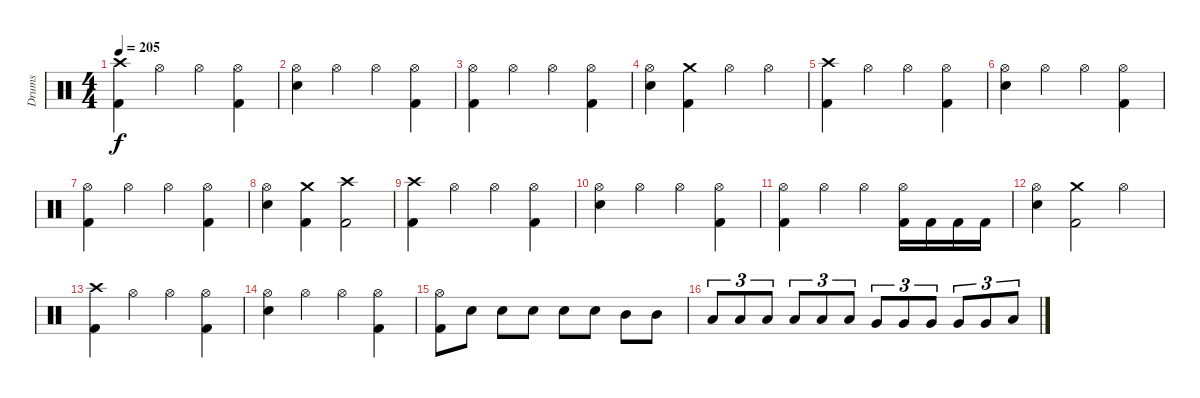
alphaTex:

\track ("Drums" "Drums") {instrument percussion}
\staff {score}
\articulation defaults
\ts (4 4)
\tempo 205
\clef neutral
\ks c
("Crash high (hit)" "Kick (hit) 2").4{dy f} "Hi-Hat (open)".4 "Hi-Hat (open)".4 ("Hi-Hat (open)" "Kick (hit) 2").4 |
("Hi-Hat (open)" "Snare (hit) 2").4 "Hi-Hat (open)".4 "Hi-Hat (open)".4 ("Hi-Hat (open)" "Kick (hit) 2").4 |
("Hi-Hat (open)" "Kick (hit) 2").4 "Hi-Hat (open)".4 "Hi-Hat (open)".4 ("Hi-Hat (open)" "Kick (hit) 2").4 |
("Hi-Hat (open)" "Snare (hit) 2").4 ("Crash medium (hit)" "Kick (hit) 2").4 "Hi-Hat (open)".4 "Hi-Hat (open)".4 |
("Crash high (hit)" "Kick (hit) 2").4 "Hi-Hat (open)".4 "Hi-Hat (open)".4 ("Hi-Hat (open)" "Kick (hit) 2").4 |
("Hi-Hat (open)" "Snare (hit) 2").4 "Hi-Hat (open)".4 "Hi-Hat (open)".4 ("Hi-Hat (open)" "Kick (hit) 2").4 |
("Hi-Hat (open)" "Kick (hit) 2").4 "Hi-Hat (open)".4 "Hi-Hat (open)".4 ("Hi-Hat (open)" "Kick (hit) 2").4 |
("Hi-Hat (open)" "Snare (hit) 2").4 ("Crash medium (hit)" "Kick (hit) 2").4 ("Crash high (hit)" "Kick (hit) 2").2 |
("Crash high (hit)" "Kick (hit) 2").4 "Hi-Hat (open)".4 "Hi-Hat (open)".4 ("Hi-Hat (open)" "Kick (hit) 2").4 |
("Hi-Hat (open)" "Snare (hit) 2").4 "Hi-Hat (open)".4 "Hi-Hat (open)".4 ("Hi-Hat (open)" "Kick (hit) 2").4 |
("Hi-Hat (open)" "Kick (hit) 2").4 "Hi-Hat (open)".4 "Hi-Hat (open)".4 ("Hi-Hat (open)" "Kick (hit) 2").16 "Kick (hit) 2".16 "Kick (hit) 2".16 "Kick (hit) 2".16 |
("Hi-Hat (open)" "Snare (hit) 2").4 ("Crash medium (hit)" "Kick (hit) 2").2 "Hi-Hat (open)".4 |
("Crash high (hit)" "Kick (hit) 2").4 "Hi-Hat (open)".4 "Hi-Hat (open)".4 ("Hi-Hat (open)" "Kick (hit) 2").4 |
("Hi-Hat (open)" "Snare (hit) 2").4 "Hi-Hat (open)".4 "Hi-Hat (open)".4 ("Hi-Hat (open)" "Kick (hit) 2").4 |
("Hi-Hat (open)" "Kick (hit) 2").8 "Snare (hit) 2".8 "Snare (hit) 2".8 "Snare (hit) 2".8 "Snare (hit) 2".8 "Snare (hit) 2".8 "Mid Tom (hit)".8 "Mid Tom (hit)".8 |
"Low Tom (hit)".8{tu (3 2)} "Low Tom (hit)".8{tu (3 2)} "Low Tom (hit)".8{tu (3 2)} "Low Tom (hit)".8{tu (3 2)} "Low Tom (hit)".8{tu (3 2)} "Low Tom (hit)".8{tu (3 2)} "Very Low Tom (hit)".8{tu (3 2)} "Very Low Tom (hit)".8{tu (3 2)} "Very Low Tom (hit)".8{tu (3 2)} "Very Low Tom (hit)".8{tu (3 2)} "Very Low Tom (hit)".8{tu (3 2)} "Low Floor Tom (hit)".8{tu (3 2)}
